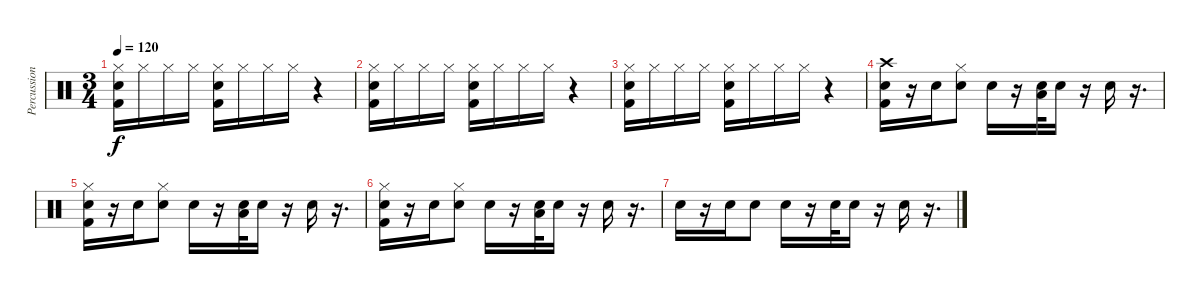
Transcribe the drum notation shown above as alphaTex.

\track ("Percussions" "Percussion") {instrument percussion}
\staff {score}
\articulation defaults
\ts (3 4)
\tempo 120
\clef neutral
\ks c
("Hi-Hat (closed)" "Electric Snare (hit)" "Kick (hit) 2").16{dy f} "Hi-Hat (closed)".16 "Hi-Hat (closed)".16 "Hi-Hat (closed)".16 ("Hi-Hat (closed)" "Electric Snare (hit)" "Kick (hit) 2").16 "Hi-Hat (closed)".16 "Hi-Hat (closed)".16 "Hi-Hat (closed)".16 r.4 |
("Hi-Hat (closed)" "Electric Snare (hit)" "Kick (hit) 2").16 "Hi-Hat (closed)".16 "Hi-Hat (closed)".16 "Hi-Hat (closed)".16 ("Hi-Hat (closed)" "Electric Snare (hit)" "Kick (hit) 2").16 "Hi-Hat (closed)".16 "Hi-Hat (closed)".16 "Hi-Hat (closed)".16 r.4 |
("Hi-Hat (closed)" "Electric Snare (hit)" "Kick (hit) 2").16 "Hi-Hat (closed)".16 "Hi-Hat (closed)".16 "Hi-Hat (closed)".16 ("Hi-Hat (closed)" "Electric Snare (hit)" "Kick (hit) 2").16 "Hi-Hat (closed)".16 "Hi-Hat (closed)".16 "Hi-Hat (closed)".16 r.4 |
("Electric Snare (hit)" "Kick (hit) 2" "Crash high (hit)").16 r.16 "Electric Snare (hit)".16 ("Electric Snare (hit)" "Hi-Hat (closed)").8 "Electric Snare (hit)".16 r.16 ("Electric Snare (hit)" "Low Tom (hit)").32 "Electric Snare (hit)".16 r.16 "Electric Snare (hit)".16 r.16{d} |
("Electric Snare (hit)" "Kick (hit) 2" "Hi-Hat (closed)").16 r.16 "Electric Snare (hit)".16 ("Electric Snare (hit)" "Hi-Hat (closed)").8 "Electric Snare (hit)".16 r.16 ("Electric Snare (hit)" "Low Tom (hit)").32 "Electric Snare (hit)".16 r.16 "Electric Snare (hit)".16 r.16{d} |
("Electric Snare (hit)" "Kick (hit) 2" "Hi-Hat (closed)").16 r.16 "Electric Snare (hit)".16 ("Electric Snare (hit)" "Hi-Hat (closed)").8 "Electric Snare (hit)".16 r.16 ("Electric Snare (hit)" "Low Tom (hit)").32 "Electric Snare (hit)".16 r.16 "Electric Snare (hit)".16 r.16{d} |
"Electric Snare (hit)".16 r.16 "Electric Snare (hit)".16 "Electric Snare (hit)".8 "Electric Snare (hit)".16 r.16 "Electric Snare (hit)".32 "Electric Snare (hit)".16 r.16 "Electric Snare (hit)".16 r.16{d}
